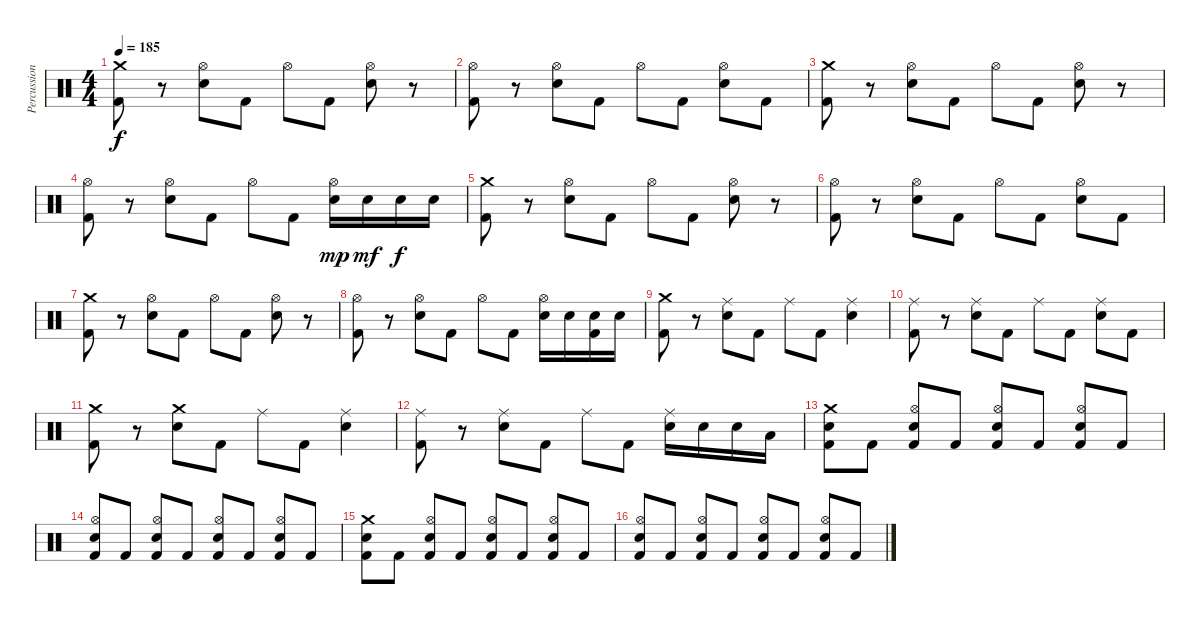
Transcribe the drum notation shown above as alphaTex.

\track ("Percussions" "Percussion") {instrument percussion}
\staff {score}
\articulation defaults
\ts (4 4)
\tempo 185
\clef neutral
\ks c
("Crash medium (hit)" "Kick (hit) 2").8{dy f} r.8 ("Hi-Hat (open)" "Electric Snare (hit)").8 "Kick (hit) 2".8 "Hi-Hat (open)".8 "Kick (hit) 2".8 ("Hi-Hat (open)" "Electric Snare (hit)").8 r.8 |
("Hi-Hat (open)" "Kick (hit) 2").8 r.8 ("Hi-Hat (open)" "Electric Snare (hit)").8 "Kick (hit) 2".8 "Hi-Hat (open)".8 "Kick (hit) 2".8 ("Hi-Hat (open)" "Electric Snare (hit)").8 "Kick (hit) 2".8 |
("Crash medium (hit)" "Kick (hit) 2").8 r.8 ("Hi-Hat (open)" "Electric Snare (hit)").8 "Kick (hit) 2".8 "Hi-Hat (open)".8 "Kick (hit) 2".8 ("Hi-Hat (open)" "Electric Snare (hit)").8 r.8 |
("Hi-Hat (open)" "Kick (hit) 2").8 r.8 ("Hi-Hat (open)" "Electric Snare (hit)").8 "Kick (hit) 2".8 "Hi-Hat (open)".8 "Kick (hit) 2".8 ("Hi-Hat (open)" "Electric Snare (hit)").16{dy mp} "Electric Snare (hit)".16{dy mf} "Electric Snare (hit)".16{dy f} "Electric Snare (hit)".16 |
("Crash medium (hit)" "Kick (hit) 2").8 r.8 ("Hi-Hat (open)" "Electric Snare (hit)").8 "Kick (hit) 2".8 "Hi-Hat (open)".8 "Kick (hit) 2".8 ("Hi-Hat (open)" "Electric Snare (hit)").8 r.8 |
("Hi-Hat (open)" "Kick (hit) 2").8 r.8 ("Hi-Hat (open)" "Electric Snare (hit)").8 "Kick (hit) 2".8 "Hi-Hat (open)".8 "Kick (hit) 2".8 ("Hi-Hat (open)" "Electric Snare (hit)").8 "Kick (hit) 2".8 |
("Crash medium (hit)" "Kick (hit) 2").8 r.8 ("Hi-Hat (open)" "Electric Snare (hit)").8 "Kick (hit) 2".8 "Hi-Hat (open)".8 "Kick (hit) 2".8 ("Hi-Hat (open)" "Electric Snare (hit)").8 r.8 |
("Hi-Hat (open)" "Kick (hit) 2").8 r.8 ("Hi-Hat (open)" "Electric Snare (hit)").8 "Kick (hit) 2".8 "Hi-Hat (open)".8 "Kick (hit) 2".8 ("Hi-Hat (open)" "Electric Snare (hit)").16 "Electric Snare (hit)".16 ("Electric Snare (hit)" "Kick (hit) 2").16 "Electric Snare (hit)".16 |
("Crash medium (hit)" "Kick (hit) 2").8 r.8 ("Ride (middle)" "Electric Snare (hit)").8 "Kick (hit) 2".8 "Ride (middle)".8 "Kick (hit) 2".8 ("Ride (middle)" "Electric Snare (hit)").4 |
("Ride (middle)" "Kick (hit) 2").8 r.8 ("Ride (middle)" "Electric Snare (hit)").8 "Kick (hit) 2".8 "Ride (middle)".8 "Kick (hit) 2".8 ("Ride (middle)" "Electric Snare (hit)").8 "Kick (hit) 2".8 |
("Crash medium (hit)" "Kick (hit) 2").8 r.8 ("Crash medium (hit)" "Electric Snare (hit)").8 "Kick (hit) 2".8 "Ride (middle)".8 "Kick (hit) 2".8 ("Ride (middle)" "Electric Snare (hit)").4 |
("Ride (middle)" "Kick (hit) 2").8 r.8 ("Ride (middle)" "Electric Snare (hit)").8 "Kick (hit) 2".8 "Ride (middle)".8 "Kick (hit) 2".8 ("Ride (middle)" "Electric Snare (hit)").16 "Electric Snare (hit)".16 "Electric Snare (hit)".16 "Low Tom (hit)".16 |
("Crash medium (hit)" "Electric Snare (hit)" "Kick (hit) 2").8 "Kick (hit) 2".8 ("Hi-Hat (open)" "Electric Snare (hit)" "Kick (hit) 2").8 "Kick (hit) 2".8 ("Hi-Hat (open)" "Electric Snare (hit)" "Kick (hit) 2").8 "Kick (hit) 2".8 ("Hi-Hat (open)" "Electric Snare (hit)" "Kick (hit) 2").8 "Kick (hit) 2".8 |
("Hi-Hat (open)" "Electric Snare (hit)" "Kick (hit) 2").8 "Kick (hit) 2".8 ("Hi-Hat (open)" "Electric Snare (hit)" "Kick (hit) 2").8 "Kick (hit) 2".8 ("Hi-Hat (open)" "Electric Snare (hit)" "Kick (hit) 2").8 "Kick (hit) 2".8 ("Hi-Hat (open)" "Electric Snare (hit)" "Kick (hit) 2").8 "Kick (hit) 2".8 |
("Crash medium (hit)" "Electric Snare (hit)" "Kick (hit) 2").8 "Kick (hit) 2".8 ("Hi-Hat (open)" "Electric Snare (hit)" "Kick (hit) 2").8 "Kick (hit) 2".8 ("Hi-Hat (open)" "Electric Snare (hit)" "Kick (hit) 2").8 "Kick (hit) 2".8 ("Hi-Hat (open)" "Electric Snare (hit)" "Kick (hit) 2").8 "Kick (hit) 2".8 |
("Hi-Hat (open)" "Electric Snare (hit)" "Kick (hit) 2").8 "Kick (hit) 2".8 ("Hi-Hat (open)" "Electric Snare (hit)" "Kick (hit) 2").8 "Kick (hit) 2".8 ("Hi-Hat (open)" "Electric Snare (hit)" "Kick (hit) 2").8 "Kick (hit) 2".8 ("Hi-Hat (open)" "Electric Snare (hit)" "Kick (hit) 2").8 "Kick (hit) 2".8
